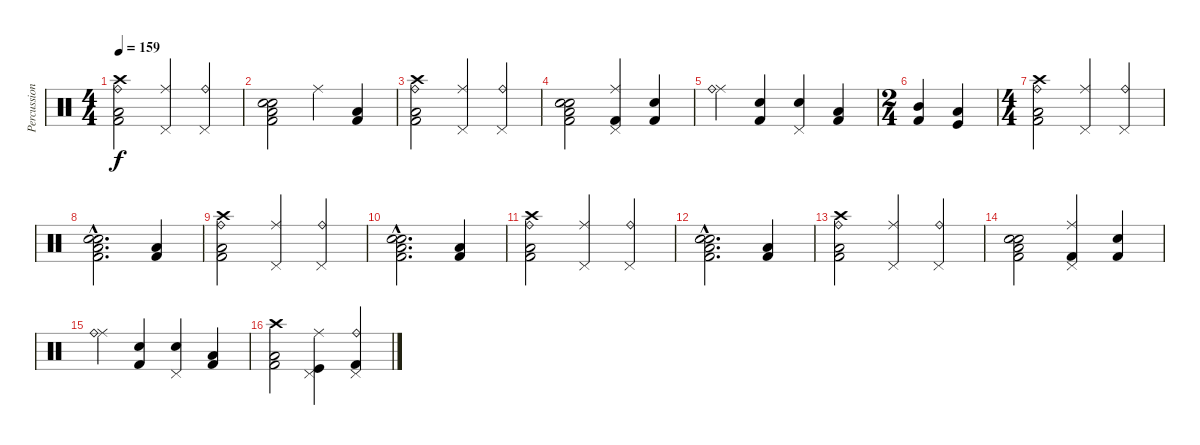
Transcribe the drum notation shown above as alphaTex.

\track ("Percussions" "Percussion") {instrument percussion}
\staff {score}
\articulation defaults
\ts (4 4)
\tempo 159
\clef neutral
\ks c
("Ride (bell)" "Crash high (hit)" "Low Tom (hit)" "Kick (hit) 2").2{dy f} ("Ride (middle)" "Pedal Hi-Hat (hit)").4 ("Pedal Hi-Hat (hit)" "Ride (bell)").4 |
("Kick (hit) 2" "Low Tom (hit)" "Snare (hit) 2" "Electric Snare (hit)").2 "Ride (middle)".4 ("Low Tom (hit)" "Kick (hit) 2").4 |
("Ride (bell)" "Crash high (hit)" "Low Tom (hit)" "Kick (hit) 2").2 ("Ride (middle)" "Pedal Hi-Hat (hit)").4 ("Pedal Hi-Hat (hit)" "Ride (bell)").4 |
("Kick (hit) 2" "Low Tom (hit)" "Snare (hit) 2" "Electric Snare (hit)").2 ("Ride (middle)" "Pedal Hi-Hat (hit)" "Kick (hit) 2").4 ("Kick (hit) 2" "Electric Snare (hit)").4 |
("Ride (middle)" "Ride (bell)").4 ("Kick (hit) 2" "Electric Snare (hit)").4 ("Pedal Hi-Hat (hit)" "Snare (hit) 2").4 ("Low Tom (hit)" "Kick (hit) 2").4 |
\ts (2 4)
("Mid Tom (hit)" "Kick (hit) 2").4 ("Low Tom (hit)" "Kick (hit)").4 |
\ts (4 4)
("Ride (bell)" "Crash high (hit)" "Low Tom (hit)" "Kick (hit) 2").2 ("Ride (middle)" "Pedal Hi-Hat (hit)").4 ("Pedal Hi-Hat (hit)" "Ride (bell)").4 |
("Kick (hit) 2"{hac} "Low Tom (hit)"{hac} "Snare (hit) 2"{hac} "Electric Snare (hit)"{hac}).2{d} ("Low Tom (hit)" "Kick (hit) 2").4 |
("Ride (bell)" "Crash high (hit)" "Low Tom (hit)" "Kick (hit) 2").2 ("Ride (middle)" "Pedal Hi-Hat (hit)").4 ("Pedal Hi-Hat (hit)" "Ride (bell)").4 |
("Kick (hit) 2"{hac} "Low Tom (hit)"{hac} "Snare (hit) 2"{hac} "Electric Snare (hit)"{hac}).2{d} ("Low Tom (hit)" "Kick (hit) 2").4 |
("Ride (bell)" "Crash high (hit)" "Low Tom (hit)" "Kick (hit) 2").2 ("Ride (middle)" "Pedal Hi-Hat (hit)").4 ("Pedal Hi-Hat (hit)" "Ride (bell)").4 |
("Kick (hit) 2"{hac} "Low Tom (hit)"{hac} "Snare (hit) 2"{hac} "Electric Snare (hit)"{hac}).2{d} ("Low Tom (hit)" "Kick (hit) 2").4 |
("Ride (bell)" "Crash high (hit)" "Low Tom (hit)" "Kick (hit) 2").2 ("Ride (middle)" "Pedal Hi-Hat (hit)").4 ("Pedal Hi-Hat (hit)" "Ride (bell)").4 |
("Kick (hit) 2" "Low Tom (hit)" "Snare (hit) 2" "Electric Snare (hit)").2 ("Ride (middle)" "Pedal Hi-Hat (hit)" "Kick (hit) 2").4 ("Kick (hit) 2" "Electric Snare (hit)").4 |
("Ride (middle)" "Ride (bell)").4 ("Kick (hit) 2" "Electric Snare (hit)").4 ("Pedal Hi-Hat (hit)" "Snare (hit) 2").4 ("Low Tom (hit)" "Kick (hit) 2").4 |
("Crash high (hit)" "Low Tom (hit)" "Kick (hit) 2").2 ("Kick (hit)" "Pedal Hi-Hat (hit)" "Ride (middle)").4 ("Kick (hit) 2" "Ride (bell)" "Pedal Hi-Hat (hit)").4
